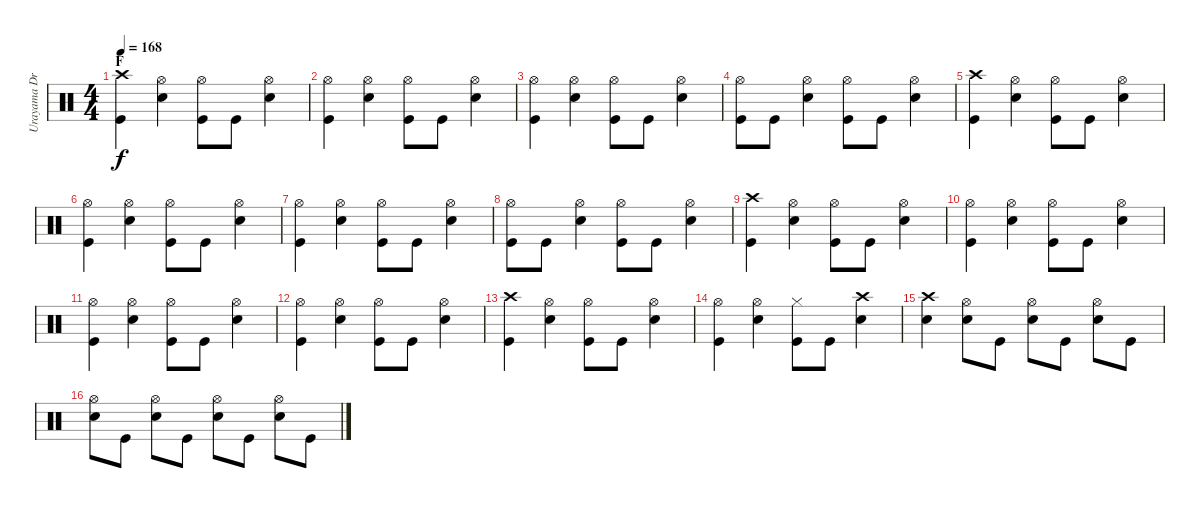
\track ("Urayama Drums" "Urayama Dr") {instrument percussion}
\staff {score}
\articulation defaults
\ts (4 4)
\section ("" "F")
\tempo 168
\clef neutral
\ks c
("Crash high (hit)" "Kick (hit)").4{dy f} ("Hi-Hat (open)" "Electric Snare (hit)").4 ("Hi-Hat (open)" "Kick (hit)").8 "Kick (hit)".8 ("Hi-Hat (open)" "Electric Snare (hit)").4 |
("Hi-Hat (open)" "Kick (hit)").4 ("Hi-Hat (open)" "Electric Snare (hit)").4 ("Hi-Hat (open)" "Kick (hit)").8 "Kick (hit)".8 ("Hi-Hat (open)" "Electric Snare (hit)").4 |
("Hi-Hat (open)" "Kick (hit)").4 ("Hi-Hat (open)" "Electric Snare (hit)").4 ("Hi-Hat (open)" "Kick (hit)").8 "Kick (hit)".8 ("Hi-Hat (open)" "Electric Snare (hit)").4 |
("Hi-Hat (open)" "Kick (hit)").8 "Kick (hit)".8 ("Hi-Hat (open)" "Electric Snare (hit)").4 ("Hi-Hat (open)" "Kick (hit)").8 "Kick (hit)".8 ("Hi-Hat (open)" "Electric Snare (hit)").4 |
("Crash high (hit)" "Kick (hit)").4 ("Hi-Hat (open)" "Electric Snare (hit)").4 ("Hi-Hat (open)" "Kick (hit)").8 "Kick (hit)".8 ("Hi-Hat (open)" "Electric Snare (hit)").4 |
("Hi-Hat (open)" "Kick (hit)").4 ("Hi-Hat (open)" "Electric Snare (hit)").4 ("Hi-Hat (open)" "Kick (hit)").8 "Kick (hit)".8 ("Hi-Hat (open)" "Electric Snare (hit)").4 |
("Hi-Hat (open)" "Kick (hit)").4 ("Hi-Hat (open)" "Electric Snare (hit)").4 ("Hi-Hat (open)" "Kick (hit)").8 "Kick (hit)".8 ("Hi-Hat (open)" "Electric Snare (hit)").4 |
("Hi-Hat (open)" "Kick (hit)").8 "Kick (hit)".8 ("Hi-Hat (open)" "Electric Snare (hit)").4 ("Hi-Hat (open)" "Kick (hit)").8 "Kick (hit)".8 ("Hi-Hat (open)" "Electric Snare (hit)").4 |
("Crash high (hit)" "Kick (hit)").4 ("Hi-Hat (open)" "Electric Snare (hit)").4 ("Hi-Hat (open)" "Kick (hit)").8 "Kick (hit)".8 ("Hi-Hat (open)" "Electric Snare (hit)").4 |
("Hi-Hat (open)" "Kick (hit)").4 ("Hi-Hat (open)" "Electric Snare (hit)").4 ("Hi-Hat (open)" "Kick (hit)").8 "Kick (hit)".8 ("Hi-Hat (open)" "Electric Snare (hit)").4 |
("Hi-Hat (open)" "Kick (hit)").4 ("Hi-Hat (open)" "Electric Snare (hit)").4 ("Hi-Hat (open)" "Kick (hit)").8 "Kick (hit)".8 ("Hi-Hat (open)" "Electric Snare (hit)").4 |
("Hi-Hat (open)" "Kick (hit)").4 ("Hi-Hat (open)" "Electric Snare (hit)").4 ("Hi-Hat (open)" "Kick (hit)").8 "Kick (hit)".8 ("Hi-Hat (open)" "Electric Snare (hit)").4 |
("Crash high (hit)" "Kick (hit)").4 ("Hi-Hat (open)" "Electric Snare (hit)").4 ("Hi-Hat (open)" "Kick (hit)").8 "Kick (hit)".8 ("Hi-Hat (open)" "Electric Snare (hit)").4 |
("Hi-Hat (open)" "Kick (hit)").4 ("Hi-Hat (open)" "Electric Snare (hit)").4 ("Hi-Hat (closed)" "Kick (hit)").8 "Kick (hit)".8 ("Crash high (hit)" "Electric Snare (hit)").4 |
("Crash high (hit)" "Electric Snare (hit)").4 ("Hi-Hat (open)" "Electric Snare (hit)").8 "Kick (hit)".8 ("Hi-Hat (open)" "Electric Snare (hit)").8 "Kick (hit)".8 ("Hi-Hat (open)" "Electric Snare (hit)").8 "Kick (hit)".8 |
("Hi-Hat (open)" "Electric Snare (hit)").8 "Kick (hit)".8 ("Hi-Hat (open)" "Electric Snare (hit)").8 "Kick (hit)".8 ("Hi-Hat (open)" "Electric Snare (hit)").8 "Kick (hit)".8 ("Hi-Hat (open)" "Electric Snare (hit)").8 "Kick (hit)".8
